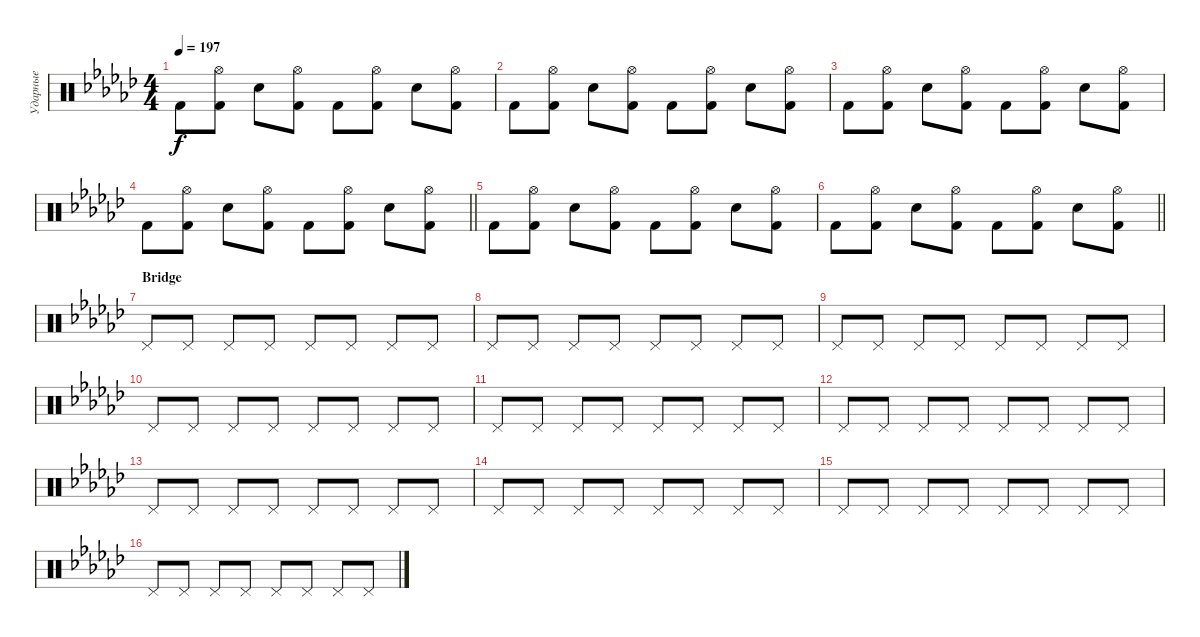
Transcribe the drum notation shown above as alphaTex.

\track ("Ударные" "Ударные") {instrument percussion}
\staff {score}
\articulation defaults
\ts (4 4)
\tempo 197
\clef neutral
\ks gb "Kick (hit) 2".8{dy f}
("Hi-Hat (open)" "Kick (hit) 2").8 "Snare (hit) 2".8 ("Hi-Hat (open)" "Kick (hit) 2").8 "Kick (hit) 2".8 ("Hi-Hat (open)" "Kick (hit) 2").8 "Snare (hit) 2".8 ("Hi-Hat (open)" "Kick (hit) 2").8 |
"Kick (hit) 2".8 ("Hi-Hat (open)" "Kick (hit) 2").8 "Snare (hit) 2".8 ("Hi-Hat (open)" "Kick (hit) 2").8 "Kick (hit) 2".8 ("Hi-Hat (open)" "Kick (hit) 2").8 "Snare (hit) 2".8 ("Hi-Hat (open)" "Kick (hit) 2").8 |
"Kick (hit) 2".8 ("Hi-Hat (open)" "Kick (hit) 2").8 "Snare (hit) 2".8 ("Hi-Hat (open)" "Kick (hit) 2").8 "Kick (hit) 2".8 ("Hi-Hat (open)" "Kick (hit) 2").8 "Snare (hit) 2".8 ("Hi-Hat (open)" "Kick (hit) 2").8 |
\barLineRight lightlight "Kick (hit) 2".8
("Hi-Hat (open)" "Kick (hit) 2").8 "Snare (hit) 2".8 ("Hi-Hat (open)" "Kick (hit) 2").8 "Kick (hit) 2".8 ("Hi-Hat (open)" "Kick (hit) 2").8 "Snare (hit) 2".8 ("Hi-Hat (open)" "Kick (hit) 2").8 |
"Kick (hit) 2".8 ("Hi-Hat (open)" "Kick (hit) 2").8 "Snare (hit) 2".8 ("Hi-Hat (open)" "Kick (hit) 2").8 "Kick (hit) 2".8 ("Hi-Hat (open)" "Kick (hit) 2").8 "Snare (hit) 2".8 ("Hi-Hat (open)" "Kick (hit) 2").8 |
\barLineRight lightlight "Kick (hit) 2".8
("Hi-Hat (open)" "Kick (hit) 2").8 "Snare (hit) 2".8 ("Hi-Hat (open)" "Kick (hit) 2").8 "Kick (hit) 2".8 ("Hi-Hat (open)" "Kick (hit) 2").8 "Snare (hit) 2".8 ("Hi-Hat (open)" "Kick (hit) 2").8 |
\section ("" "Bridge")
"Pedal Hi-Hat (hit)".8 "Pedal Hi-Hat (hit)".8 "Pedal Hi-Hat (hit)".8 "Pedal Hi-Hat (hit)".8 "Pedal Hi-Hat (hit)".8 "Pedal Hi-Hat (hit)".8 "Pedal Hi-Hat (hit)".8 "Pedal Hi-Hat (hit)".8 |
"Pedal Hi-Hat (hit)".8 "Pedal Hi-Hat (hit)".8 "Pedal Hi-Hat (hit)".8 "Pedal Hi-Hat (hit)".8 "Pedal Hi-Hat (hit)".8 "Pedal Hi-Hat (hit)".8 "Pedal Hi-Hat (hit)".8 "Pedal Hi-Hat (hit)".8 |
"Pedal Hi-Hat (hit)".8 "Pedal Hi-Hat (hit)".8 "Pedal Hi-Hat (hit)".8 "Pedal Hi-Hat (hit)".8 "Pedal Hi-Hat (hit)".8 "Pedal Hi-Hat (hit)".8 "Pedal Hi-Hat (hit)".8 "Pedal Hi-Hat (hit)".8 |
"Pedal Hi-Hat (hit)".8 "Pedal Hi-Hat (hit)".8 "Pedal Hi-Hat (hit)".8 "Pedal Hi-Hat (hit)".8 "Pedal Hi-Hat (hit)".8 "Pedal Hi-Hat (hit)".8 "Pedal Hi-Hat (hit)".8 "Pedal Hi-Hat (hit)".8 |
"Pedal Hi-Hat (hit)".8 "Pedal Hi-Hat (hit)".8 "Pedal Hi-Hat (hit)".8 "Pedal Hi-Hat (hit)".8 "Pedal Hi-Hat (hit)".8 "Pedal Hi-Hat (hit)".8 "Pedal Hi-Hat (hit)".8 "Pedal Hi-Hat (hit)".8 |
"Pedal Hi-Hat (hit)".8 "Pedal Hi-Hat (hit)".8 "Pedal Hi-Hat (hit)".8 "Pedal Hi-Hat (hit)".8 "Pedal Hi-Hat (hit)".8 "Pedal Hi-Hat (hit)".8 "Pedal Hi-Hat (hit)".8 "Pedal Hi-Hat (hit)".8 |
"Pedal Hi-Hat (hit)".8 "Pedal Hi-Hat (hit)".8 "Pedal Hi-Hat (hit)".8 "Pedal Hi-Hat (hit)".8 "Pedal Hi-Hat (hit)".8 "Pedal Hi-Hat (hit)".8 "Pedal Hi-Hat (hit)".8 "Pedal Hi-Hat (hit)".8 |
"Pedal Hi-Hat (hit)".8 "Pedal Hi-Hat (hit)".8 "Pedal Hi-Hat (hit)".8 "Pedal Hi-Hat (hit)".8 "Pedal Hi-Hat (hit)".8 "Pedal Hi-Hat (hit)".8 "Pedal Hi-Hat (hit)".8 "Pedal Hi-Hat (hit)".8 |
"Pedal Hi-Hat (hit)".8 "Pedal Hi-Hat (hit)".8 "Pedal Hi-Hat (hit)".8 "Pedal Hi-Hat (hit)".8 "Pedal Hi-Hat (hit)".8 "Pedal Hi-Hat (hit)".8 "Pedal Hi-Hat (hit)".8 "Pedal Hi-Hat (hit)".8 |
"Pedal Hi-Hat (hit)".8 "Pedal Hi-Hat (hit)".8 "Pedal Hi-Hat (hit)".8 "Pedal Hi-Hat (hit)".8 "Pedal Hi-Hat (hit)".8 "Pedal Hi-Hat (hit)".8 "Pedal Hi-Hat (hit)".8 "Pedal Hi-Hat (hit)".8
